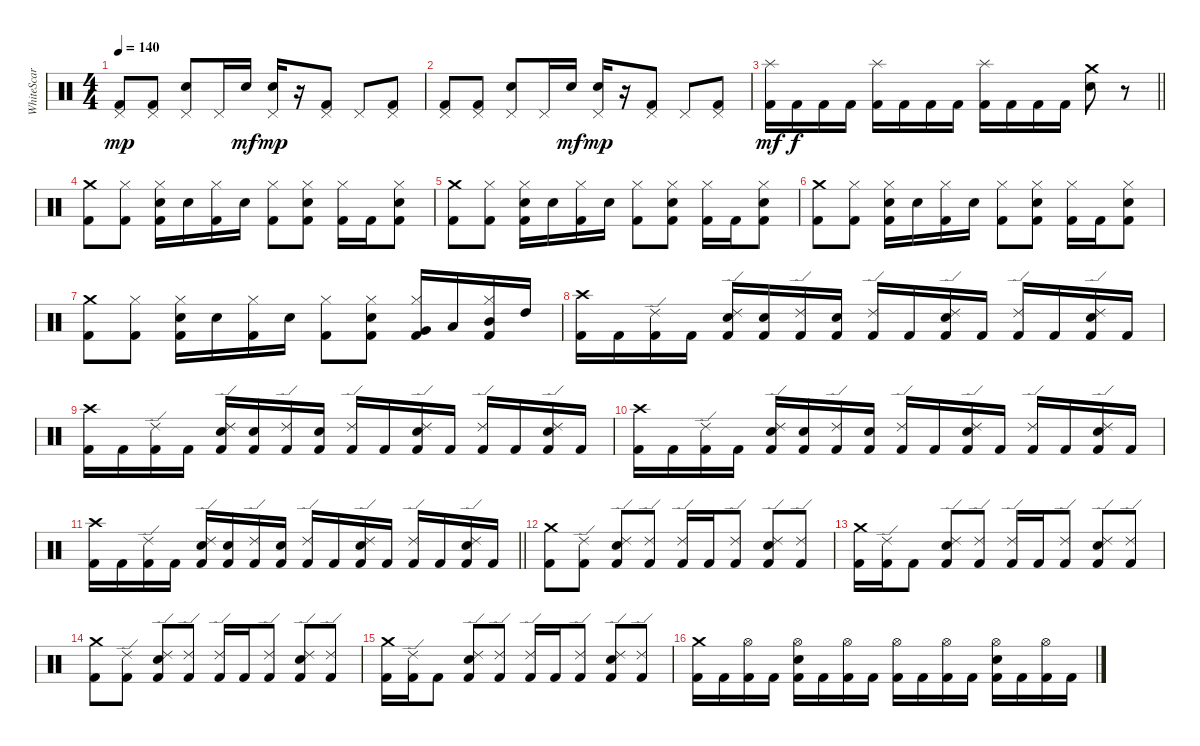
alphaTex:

\track ("WhiteScar " "WhiteScar ") {instrument percussion}
\staff {score}
\articulation defaults
\ts (4 4)
\tempo 140
\clef neutral
\ks c
("Pedal Hi-Hat (hit)" "Kick (hit) 2").8{dy mp} ("Pedal Hi-Hat (hit)" "Kick (hit) 2").8 ("Pedal Hi-Hat (hit)" "Snare (hit) 2").8 "Pedal Hi-Hat (hit)".16 "Snare (hit) 2".16{dy mf} ("Pedal Hi-Hat (hit)" "Snare (hit) 2").16{dy mp} r.16 ("Pedal Hi-Hat (hit)" "Kick (hit) 2").8 "Pedal Hi-Hat (hit)".8 ("Pedal Hi-Hat (hit)" "Kick (hit) 2").8 |
("Pedal Hi-Hat (hit)" "Kick (hit) 2").8 ("Pedal Hi-Hat (hit)" "Kick (hit) 2").8 ("Pedal Hi-Hat (hit)" "Snare (hit) 2").8 "Pedal Hi-Hat (hit)".16 "Snare (hit) 2".16{dy mf} ("Pedal Hi-Hat (hit)" "Snare (hit) 2").16{dy mp} r.16 ("Pedal Hi-Hat (hit)" "Kick (hit) 2").8 "Pedal Hi-Hat (hit)".8 ("Pedal Hi-Hat (hit)" "Kick (hit) 2").8 |
\barLineRight lightlight
("Splash (hit)" "Kick (hit) 2").16{dy mf} "Kick (hit) 2".16{dy f} "Kick (hit) 2".16 "Kick (hit) 2".16 ("Splash (hit)" "Kick (hit) 2").16 "Kick (hit) 2".16 "Kick (hit) 2".16 "Kick (hit) 2".16 ("Splash (hit)" "Kick (hit) 2").16 "Kick (hit) 2".16 "Kick (hit) 2".16 "Kick (hit) 2".16 ("Crash medium (hit)" "Snare (hit) 2").8 r.8 |
("Crash medium (hit)" "Kick (hit) 2").8 ("Hi-Hat (closed)" "Kick (hit) 2").8 ("Hi-Hat (closed)" "Snare (hit) 2" "Kick (hit) 2").16 "Snare (hit) 2".16 ("Hi-Hat (closed)" "Kick (hit) 2").16 "Snare (hit) 2".16 ("Hi-Hat (closed)" "Kick (hit) 2").8 ("Hi-Hat (closed)" "Snare (hit) 2" "Kick (hit) 2").8 ("Hi-Hat (closed)" "Kick (hit) 2").16 "Kick (hit) 2".16 ("Hi-Hat (closed)" "Snare (hit) 2" "Kick (hit) 2").8 |
("Crash medium (hit)" "Kick (hit) 2").8 ("Hi-Hat (closed)" "Kick (hit) 2").8 ("Hi-Hat (closed)" "Snare (hit) 2" "Kick (hit) 2").16 "Snare (hit) 2".16 ("Hi-Hat (closed)" "Kick (hit) 2").16 "Snare (hit) 2".16 ("Hi-Hat (closed)" "Kick (hit) 2").8 ("Hi-Hat (closed)" "Snare (hit) 2" "Kick (hit) 2").8 ("Hi-Hat (closed)" "Kick (hit) 2").16 "Kick (hit) 2".16 ("Hi-Hat (closed)" "Snare (hit) 2" "Kick (hit) 2").8 |
("Crash medium (hit)" "Kick (hit) 2").8 ("Hi-Hat (closed)" "Kick (hit) 2").8 ("Hi-Hat (closed)" "Snare (hit) 2" "Kick (hit) 2").16 "Snare (hit) 2".16 ("Hi-Hat (closed)" "Kick (hit) 2").16 "Snare (hit) 2".16 ("Hi-Hat (closed)" "Kick (hit) 2").8 ("Hi-Hat (closed)" "Snare (hit) 2" "Kick (hit) 2").8 ("Hi-Hat (closed)" "Kick (hit) 2").16 "Kick (hit) 2".16 ("Hi-Hat (closed)" "Snare (hit) 2" "Kick (hit) 2").8 |
("Crash medium (hit)" "Kick (hit) 2").8 ("Hi-Hat (closed)" "Kick (hit) 2").8 ("Hi-Hat (closed)" "Snare (hit) 2" "Kick (hit) 2").16 "Snare (hit) 2".16 ("Hi-Hat (closed)" "Kick (hit) 2").16 "Snare (hit) 2".16 ("Hi-Hat (closed)" "Kick (hit) 2").8 ("Hi-Hat (closed)" "Snare (hit) 2" "Kick (hit) 2").8 ("Hi-Hat (closed)" "Very Low Tom (hit)" "Kick (hit) 2").16 "Low Tom (hit)".16 ("Hi-Hat (closed)" "Mid Tom (hit)" "Kick (hit) 2").16 "High Tom (hit)".16 |
("Crash high (hit)" "Kick (hit) 2").16 "Kick (hit) 2".16 ("Ride (edge) 2" "Kick (hit) 2").16 "Kick (hit) 2".16 ("Ride (edge) 2" "Snare (hit) 2" "Kick (hit) 2").16 ("Snare (hit) 2" "Kick (hit) 2").16 ("Ride (edge) 2" "Kick (hit) 2").16 ("Snare (hit) 2" "Kick (hit) 2").16 ("Ride (edge) 2" "Kick (hit) 2").16 "Kick (hit) 2".16 ("Ride (edge) 2" "Snare (hit) 2" "Kick (hit) 2").16 "Kick (hit) 2".16 ("Ride (edge) 2" "Kick (hit) 2").16 "Kick (hit) 2".16 ("Ride (edge) 2" "Snare (hit) 2" "Kick (hit) 2").16 "Kick (hit) 2".16 |
("Crash high (hit)" "Kick (hit) 2").16 "Kick (hit) 2".16 ("Ride (edge) 2" "Kick (hit) 2").16 "Kick (hit) 2".16 ("Ride (edge) 2" "Snare (hit) 2" "Kick (hit) 2").16 ("Snare (hit) 2" "Kick (hit) 2").16 ("Ride (edge) 2" "Kick (hit) 2").16 ("Snare (hit) 2" "Kick (hit) 2").16 ("Ride (edge) 2" "Kick (hit) 2").16 "Kick (hit) 2".16 ("Ride (edge) 2" "Snare (hit) 2" "Kick (hit) 2").16 "Kick (hit) 2".16 ("Ride (edge) 2" "Kick (hit) 2").16 "Kick (hit) 2".16 ("Ride (edge) 2" "Snare (hit) 2" "Kick (hit) 2").16 "Kick (hit) 2".16 |
("Crash high (hit)" "Kick (hit) 2").16 "Kick (hit) 2".16 ("Ride (edge) 2" "Kick (hit) 2").16 "Kick (hit) 2".16 ("Ride (edge) 2" "Snare (hit) 2" "Kick (hit) 2").16 ("Snare (hit) 2" "Kick (hit) 2").16 ("Ride (edge) 2" "Kick (hit) 2").16 ("Snare (hit) 2" "Kick (hit) 2").16 ("Ride (edge) 2" "Kick (hit) 2").16 "Kick (hit) 2".16 ("Ride (edge) 2" "Snare (hit) 2" "Kick (hit) 2").16 "Kick (hit) 2".16 ("Ride (edge) 2" "Kick (hit) 2").16 "Kick (hit) 2".16 ("Ride (edge) 2" "Snare (hit) 2" "Kick (hit) 2").16 "Kick (hit) 2".16 |
\barLineRight lightlight
("Crash high (hit)" "Kick (hit) 2").16 "Kick (hit) 2".16 ("Ride (edge) 2" "Kick (hit) 2").16 "Kick (hit) 2".16 ("Ride (edge) 2" "Snare (hit) 2" "Kick (hit) 2").16 ("Snare (hit) 2" "Kick (hit) 2").16 ("Ride (edge) 2" "Kick (hit) 2").16 ("Snare (hit) 2" "Kick (hit) 2").16 ("Ride (edge) 2" "Kick (hit) 2").16 "Kick (hit) 2".16 ("Ride (edge) 2" "Snare (hit) 2" "Kick (hit) 2").16 "Kick (hit) 2".16 ("Ride (edge) 2" "Kick (hit) 2").16 "Kick (hit) 2".16 ("Ride (edge) 2" "Snare (hit) 2" "Kick (hit) 2").16 "Kick (hit) 2".16 |
("Crash medium (hit)" "Kick (hit) 2").8 ("Ride (edge) 2" "Kick (hit) 2").8 ("Snare (hit) 2" "Ride (edge) 2" "Kick (hit) 2").8 ("Ride (edge) 2" "Kick (hit) 2").8 ("Ride (edge) 2" "Kick (hit) 2").16 "Kick (hit) 2".16 ("Ride (edge) 2" "Kick (hit) 2").8 ("Snare (hit) 2" "Ride (edge) 2" "Kick (hit) 2").8 ("Ride (edge) 2" "Kick (hit) 2").8 |
("Crash medium (hit)" "Kick (hit) 2").16 ("Ride (edge) 2" "Kick (hit) 2").16 "Kick (hit) 2".8 ("Snare (hit) 2" "Ride (edge) 2" "Kick (hit) 2").8 ("Ride (edge) 2" "Kick (hit) 2").8 ("Ride (edge) 2" "Kick (hit) 2").16 "Kick (hit) 2".16 ("Ride (edge) 2" "Kick (hit) 2").8 ("Snare (hit) 2" "Ride (edge) 2" "Kick (hit) 2").8 ("Ride (edge) 2" "Kick (hit) 2").8 |
("Crash medium (hit)" "Kick (hit) 2").8 ("Ride (edge) 2" "Kick (hit) 2").8 ("Snare (hit) 2" "Ride (edge) 2" "Kick (hit) 2").8 ("Ride (edge) 2" "Kick (hit) 2").8 ("Ride (edge) 2" "Kick (hit) 2").16 "Kick (hit) 2".16 ("Ride (edge) 2" "Kick (hit) 2").8 ("Snare (hit) 2" "Ride (edge) 2" "Kick (hit) 2").8 ("Ride (edge) 2" "Kick (hit) 2").8 |
("Crash medium (hit)" "Kick (hit) 2").16 ("Ride (edge) 2" "Kick (hit) 2").16 "Kick (hit) 2".8 ("Snare (hit) 2" "Ride (edge) 2" "Kick (hit) 2").8 ("Ride (edge) 2" "Kick (hit) 2").8 ("Ride (edge) 2" "Kick (hit) 2").16 "Kick (hit) 2".16 ("Ride (edge) 2" "Kick (hit) 2").8 ("Snare (hit) 2" "Ride (edge) 2" "Kick (hit) 2").8 ("Ride (edge) 2" "Kick (hit) 2").8 |
("Crash medium (hit)" "Kick (hit) 2").16 "Kick (hit) 2".16 ("Hi-Hat (open)" "Kick (hit) 2").16 "Kick (hit) 2".16 ("Hi-Hat (open)" "Snare (hit) 2" "Kick (hit) 2").16 "Kick (hit) 2".16 ("Hi-Hat (open)" "Kick (hit) 2").16 "Kick (hit) 2".16 ("Hi-Hat (open)" "Kick (hit) 2").16 "Kick (hit) 2".16 ("Hi-Hat (open)" "Kick (hit) 2").16 "Kick (hit) 2".16 ("Hi-Hat (open)" "Snare (hit) 2" "Kick (hit) 2").16 "Kick (hit) 2".16 ("Hi-Hat (open)" "Kick (hit) 2").16 "Kick (hit) 2".16
